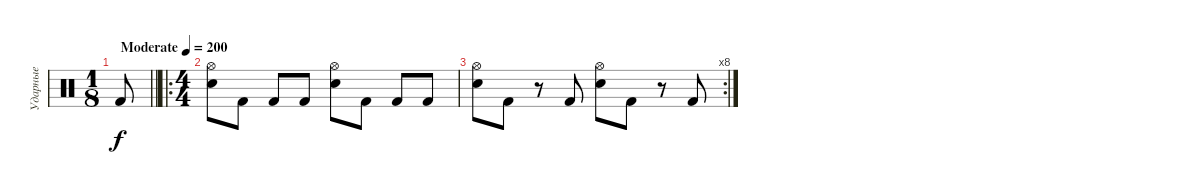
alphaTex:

\track ("Ударные" "Ударные") {instrument percussion}
\staff {score}
\articulation defaults
\ts (1 8)
\tempo (200 "Moderate")
\clef neutral
\barLineRight lightlight
\ks c "Kick (hit) 2".8{dy f}
|
\ro
\ts (4 4)
("Hi-Hat (open)" "Electric Snare (hit)").8 "Kick (hit) 2".8 "Kick (hit) 2".8 "Kick (hit) 2".8 ("Hi-Hat (open)" "Electric Snare (hit)").8 "Kick (hit) 2".8 "Kick (hit) 2".8 "Kick (hit) 2".8 |
\rc 8
("Hi-Hat (open)" "Electric Snare (hit)").8 "Kick (hit) 2".8 r.8 "Kick (hit) 2".8 ("Hi-Hat (open)" "Electric Snare (hit)").8 "Kick (hit) 2".8 r.8 "Kick (hit) 2".8
